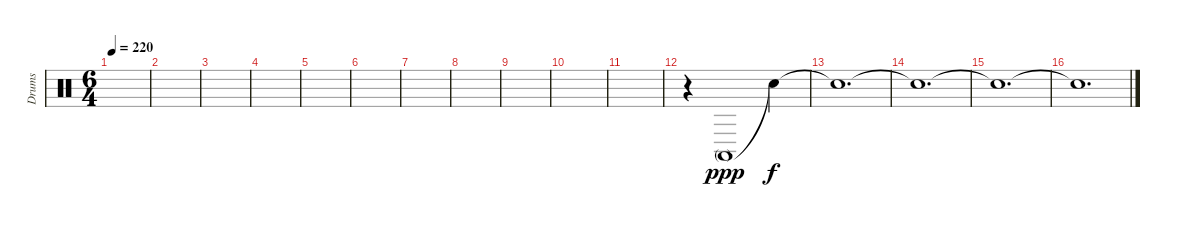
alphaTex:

\track ("Drums" "Drums") {instrument percussion}
\staff {score}
\articulation defaults
\ts (6 4)
\tempo 220
\clef neutral
\ks c
|
|
|
|
|
|
|
|
|
|
|
r.4{volume 0} "Conga high (mute)".1{dy ppp volume 14} "Snare (hit)"{t}.4{dy f} |
"Snare (hit)"{t}.1{d} |
"Snare (hit)"{t}.1{d} |
"Snare (hit)"{t}.1{d} |
"Snare (hit)"{t}.1{d volume 0}
